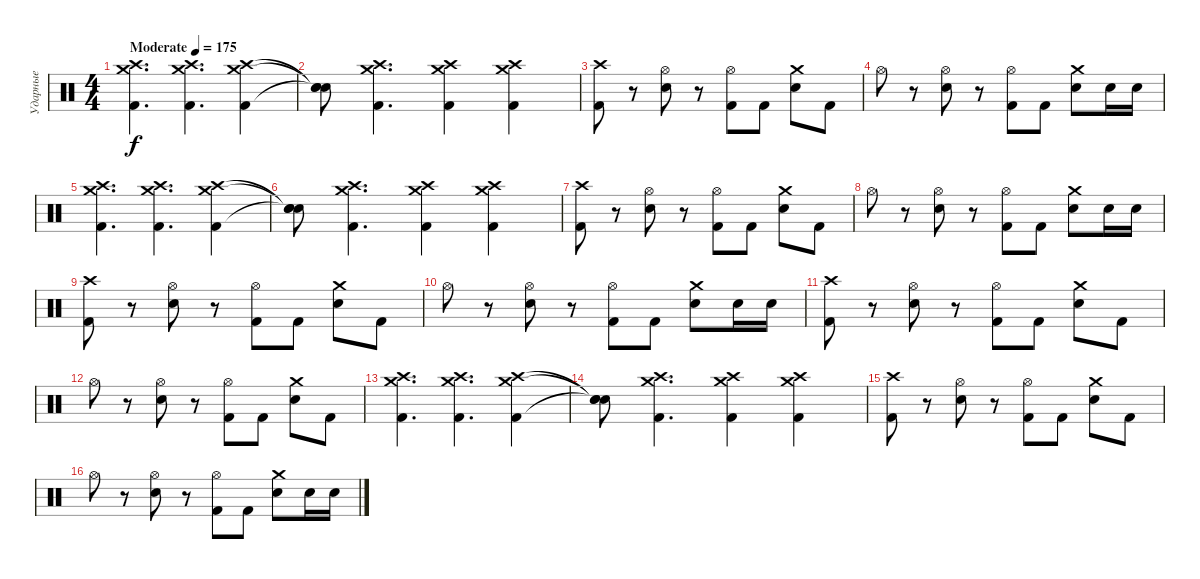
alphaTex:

\track ("Ударные" "Ударные") {instrument percussion}
\staff
\articulation defaults
\ts (4 4)
\tempo (175 "Moderate")
\clef neutral
\ks c
("Kick (hit) 2" "Crash high (hit)" "Crash medium (hit)").4{d dy f} ("Kick (hit) 2" "Crash high (hit)" "Crash medium (hit)").4{d} ("Kick (hit) 2" "Crash high (hit)" "Crash medium (hit)").4 |
("Snare (hit)"{t} "Snare (hit)"{t} "Snare (hit)"{t}).8 ("Kick (hit) 2" "Crash high (hit)" "Crash medium (hit)").4{d} ("Kick (hit) 2" "Crash high (hit)" "Crash medium (hit)").4 ("Kick (hit) 2" "Crash high (hit)" "Crash medium (hit)").4 |
("Kick (hit) 2" "Crash high (hit)").8 r.8 ("Electric Snare (hit)" "Hi-Hat (open)").8 r.8 ("Kick (hit) 2" "Hi-Hat (open)").8 "Kick (hit) 2".8 ("Electric Snare (hit)" "Crash medium (hit)").8 "Kick (hit) 2".8 |
"Hi-Hat (open)".8 r.8 ("Electric Snare (hit)" "Hi-Hat (open)").8 r.8 ("Kick (hit) 2" "Hi-Hat (open)").8 "Kick (hit) 2".8 ("Electric Snare (hit)" "Crash medium (hit)").8 "Electric Snare (hit)".16 "Electric Snare (hit)".16 |
("Kick (hit) 2" "Crash high (hit)" "Crash medium (hit)").4{d} ("Kick (hit) 2" "Crash high (hit)" "Crash medium (hit)").4{d} ("Kick (hit) 2" "Crash high (hit)" "Crash medium (hit)").4 |
("Snare (hit)"{t} "Snare (hit)"{t} "Snare (hit)"{t}).8 ("Kick (hit) 2" "Crash high (hit)" "Crash medium (hit)").4{d} ("Kick (hit) 2" "Crash high (hit)" "Crash medium (hit)").4 ("Kick (hit) 2" "Crash high (hit)" "Crash medium (hit)").4 |
("Kick (hit) 2" "Crash high (hit)").8 r.8 ("Electric Snare (hit)" "Hi-Hat (open)").8 r.8 ("Kick (hit) 2" "Hi-Hat (open)").8 "Kick (hit) 2".8 ("Electric Snare (hit)" "Crash medium (hit)").8 "Kick (hit) 2".8 |
"Hi-Hat (open)".8 r.8 ("Electric Snare (hit)" "Hi-Hat (open)").8 r.8 ("Kick (hit) 2" "Hi-Hat (open)").8 "Kick (hit) 2".8 ("Electric Snare (hit)" "Crash medium (hit)").8 "Electric Snare (hit)".16 "Electric Snare (hit)".16 |
("Kick (hit) 2" "Crash high (hit)").8 r.8 ("Electric Snare (hit)" "Hi-Hat (open)").8 r.8 ("Kick (hit) 2" "Hi-Hat (open)").8 "Kick (hit) 2".8 ("Electric Snare (hit)" "Crash medium (hit)").8 "Kick (hit) 2".8 |
"Hi-Hat (open)".8 r.8 ("Electric Snare (hit)" "Hi-Hat (open)").8 r.8 ("Kick (hit) 2" "Hi-Hat (open)").8 "Kick (hit) 2".8 ("Electric Snare (hit)" "Crash medium (hit)").8 "Electric Snare (hit)".16 "Electric Snare (hit)".16 |
("Kick (hit) 2" "Crash high (hit)").8 r.8 ("Electric Snare (hit)" "Hi-Hat (open)").8 r.8 ("Kick (hit) 2" "Hi-Hat (open)").8 "Kick (hit) 2".8 ("Electric Snare (hit)" "Crash medium (hit)").8 "Kick (hit) 2".8 |
"Hi-Hat (open)".8 r.8 ("Electric Snare (hit)" "Hi-Hat (open)").8 r.8 ("Kick (hit) 2" "Hi-Hat (open)").8 "Kick (hit) 2".8 ("Electric Snare (hit)" "Crash medium (hit)").8 "Kick (hit) 2".8 |
("Kick (hit) 2" "Crash high (hit)" "Crash medium (hit)").4{d} ("Kick (hit) 2" "Crash high (hit)" "Crash medium (hit)").4{d} ("Kick (hit) 2" "Crash high (hit)" "Crash medium (hit)").4 |
("Snare (hit)"{t} "Snare (hit)"{t} "Snare (hit)"{t}).8 ("Kick (hit) 2" "Crash high (hit)" "Crash medium (hit)").4{d} ("Kick (hit) 2" "Crash high (hit)" "Crash medium (hit)").4 ("Kick (hit) 2" "Crash high (hit)" "Crash medium (hit)").4 |
("Kick (hit) 2" "Crash high (hit)").8 r.8 ("Electric Snare (hit)" "Hi-Hat (open)").8 r.8 ("Kick (hit) 2" "Hi-Hat (open)").8 "Kick (hit) 2".8 ("Electric Snare (hit)" "Crash medium (hit)").8 "Kick (hit) 2".8 |
"Hi-Hat (open)".8 r.8 ("Electric Snare (hit)" "Hi-Hat (open)").8 r.8 ("Kick (hit) 2" "Hi-Hat (open)").8 "Kick (hit) 2".8 ("Electric Snare (hit)" "Crash medium (hit)").8 "Electric Snare (hit)".16 "Electric Snare (hit)".16
